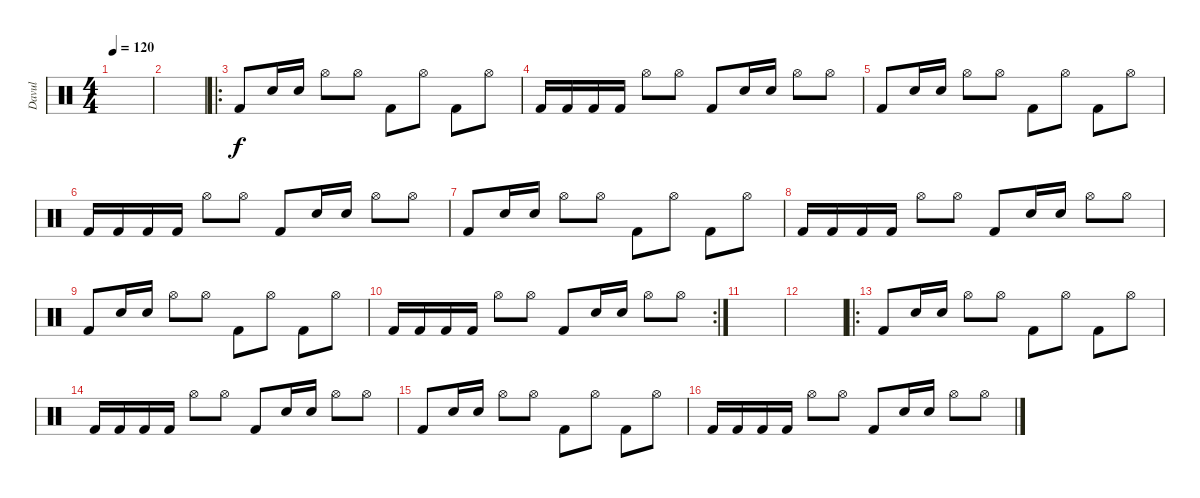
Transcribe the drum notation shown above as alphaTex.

\track ("Davul" "Davul") {instrument percussion}
\staff {score}
\articulation defaults
\ts (4 4)
\tempo 120
\clef neutral
\ks c
|
|
\ro "Kick (hit) 2".8 "Snare (hit) 2".16 "Snare (hit) 2".16 "Hi-Hat (open)".8 "Hi-Hat (open)".8 "Kick (hit) 2".8 "Hi-Hat (open)".8 "Kick (hit) 2".8 "Hi-Hat (open)".8
|
"Kick (hit) 2".16 "Kick (hit) 2".16 "Kick (hit) 2".16 "Kick (hit) 2".16 "Hi-Hat (open)".8 "Hi-Hat (open)".8 "Kick (hit) 2".8 "Snare (hit) 2".16 "Snare (hit) 2".16 "Hi-Hat (open)".8 "Hi-Hat (open)".8 |
"Kick (hit) 2".8 "Snare (hit) 2".16 "Snare (hit) 2".16 "Hi-Hat (open)".8 "Hi-Hat (open)".8 "Kick (hit) 2".8 "Hi-Hat (open)".8 "Kick (hit) 2".8 "Hi-Hat (open)".8 |
"Kick (hit) 2".16 "Kick (hit) 2".16 "Kick (hit) 2".16 "Kick (hit) 2".16 "Hi-Hat (open)".8 "Hi-Hat (open)".8 "Kick (hit) 2".8 "Snare (hit) 2".16 "Snare (hit) 2".16 "Hi-Hat (open)".8 "Hi-Hat (open)".8 |
"Kick (hit) 2".8 "Snare (hit) 2".16 "Snare (hit) 2".16 "Hi-Hat (open)".8 "Hi-Hat (open)".8 "Kick (hit) 2".8 "Hi-Hat (open)".8 "Kick (hit) 2".8 "Hi-Hat (open)".8 |
"Kick (hit) 2".16 "Kick (hit) 2".16 "Kick (hit) 2".16 "Kick (hit) 2".16 "Hi-Hat (open)".8 "Hi-Hat (open)".8 "Kick (hit) 2".8 "Snare (hit) 2".16 "Snare (hit) 2".16 "Hi-Hat (open)".8 "Hi-Hat (open)".8 |
"Kick (hit) 2".8 "Snare (hit) 2".16 "Snare (hit) 2".16 "Hi-Hat (open)".8 "Hi-Hat (open)".8 "Kick (hit) 2".8 "Hi-Hat (open)".8 "Kick (hit) 2".8 "Hi-Hat (open)".8 |
\rc 2 "Kick (hit) 2".16 "Kick (hit) 2".16 "Kick (hit) 2".16 "Kick (hit) 2".16 "Hi-Hat (open)".8 "Hi-Hat (open)".8 "Kick (hit) 2".8 "Snare (hit) 2".16 "Snare (hit) 2".16 "Hi-Hat (open)".8 "Hi-Hat (open)".8
|
|
|
\ro "Kick (hit) 2".8 "Snare (hit) 2".16 "Snare (hit) 2".16 "Hi-Hat (open)".8 "Hi-Hat (open)".8 "Kick (hit) 2".8 "Hi-Hat (open)".8 "Kick (hit) 2".8 "Hi-Hat (open)".8
|
"Kick (hit) 2".16 "Kick (hit) 2".16 "Kick (hit) 2".16 "Kick (hit) 2".16 "Hi-Hat (open)".8 "Hi-Hat (open)".8 "Kick (hit) 2".8 "Snare (hit) 2".16 "Snare (hit) 2".16 "Hi-Hat (open)".8 "Hi-Hat (open)".8 |
"Kick (hit) 2".8 "Snare (hit) 2".16 "Snare (hit) 2".16 "Hi-Hat (open)".8 "Hi-Hat (open)".8 "Kick (hit) 2".8 "Hi-Hat (open)".8 "Kick (hit) 2".8 "Hi-Hat (open)".8 |
"Kick (hit) 2".16 "Kick (hit) 2".16 "Kick (hit) 2".16 "Kick (hit) 2".16 "Hi-Hat (open)".8 "Hi-Hat (open)".8 "Kick (hit) 2".8 "Snare (hit) 2".16 "Snare (hit) 2".16 "Hi-Hat (open)".8 "Hi-Hat (open)".8
